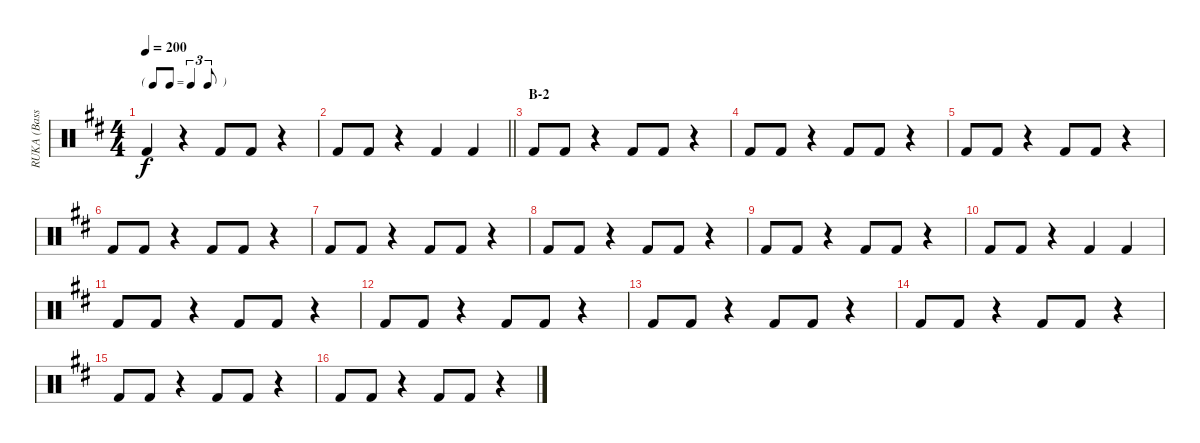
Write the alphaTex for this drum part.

\track ("RUKA (Bass)" "RUKA (Bass") {instrument percussion}
\staff {score}
\articulation defaults
\ts (4 4)
\tf triplet8th
\tempo 200
\clef neutral
\ks d "Kick (hit) 2".4{dy f}
r.4 "Kick (hit) 2".8 "Kick (hit) 2".8 r.4 |
\barLineRight lightlight "Kick (hit) 2".8 "Kick (hit) 2".8
r.4 "Kick (hit) 2".4 "Kick (hit) 2".4 |
\section ("" "B-2")
"Kick (hit) 2".8 "Kick (hit) 2".8 r.4 "Kick (hit) 2".8 "Kick (hit) 2".8 r.4 |
"Kick (hit) 2".8 "Kick (hit) 2".8 r.4 "Kick (hit) 2".8 "Kick (hit) 2".8 r.4 |
"Kick (hit) 2".8 "Kick (hit) 2".8 r.4 "Kick (hit) 2".8 "Kick (hit) 2".8 r.4 |
"Kick (hit) 2".8 "Kick (hit) 2".8 r.4 "Kick (hit) 2".8 "Kick (hit) 2".8 r.4 |
"Kick (hit) 2".8 "Kick (hit) 2".8 r.4 "Kick (hit) 2".8 "Kick (hit) 2".8 r.4 |
"Kick (hit) 2".8 "Kick (hit) 2".8 r.4 "Kick (hit) 2".8 "Kick (hit) 2".8 r.4 |
"Kick (hit) 2".8 "Kick (hit) 2".8 r.4 "Kick (hit) 2".8 "Kick (hit) 2".8 r.4 |
"Kick (hit) 2".8 "Kick (hit) 2".8 r.4 "Kick (hit) 2".4 "Kick (hit) 2".4 |
"Kick (hit) 2".8 "Kick (hit) 2".8 r.4 "Kick (hit) 2".8 "Kick (hit) 2".8 r.4 |
"Kick (hit) 2".8 "Kick (hit) 2".8 r.4 "Kick (hit) 2".8 "Kick (hit) 2".8 r.4 |
"Kick (hit) 2".8 "Kick (hit) 2".8 r.4 "Kick (hit) 2".8 "Kick (hit) 2".8 r.4 |
"Kick (hit) 2".8 "Kick (hit) 2".8 r.4 "Kick (hit) 2".8 "Kick (hit) 2".8 r.4 |
"Kick (hit) 2".8 "Kick (hit) 2".8 r.4 "Kick (hit) 2".8 "Kick (hit) 2".8 r.4 |
"Kick (hit) 2".8 "Kick (hit) 2".8 r.4 "Kick (hit) 2".8 "Kick (hit) 2".8 r.4
